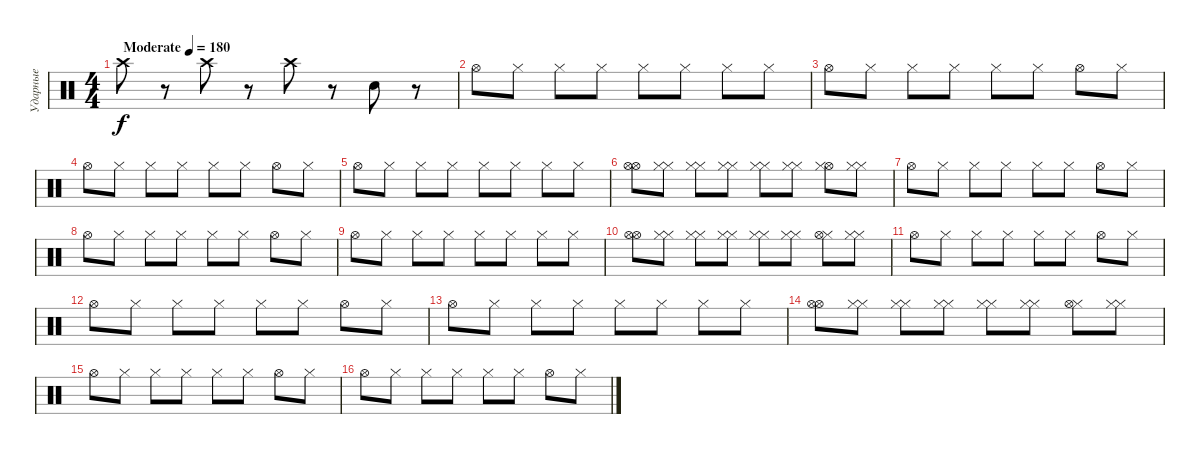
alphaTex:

\track ("Ударные" "Ударные") {instrument percussion}
\staff {score}
\articulation defaults
\ts (4 4)
\tempo (180 "Moderate")
\clef neutral
\ks c "Crash high (hit)".8{dy f}
r.8 "Crash high (hit)".8 r.8 "Crash high (hit)".8 r.8 "Electric Snare (hit)".8 r.8 |
"Hi-Hat (open)".8 "Hi-Hat (closed)".8 "Hi-Hat (closed)".8 "Hi-Hat (closed)".8 "Hi-Hat (closed)".8 "Hi-Hat (closed)".8 "Hi-Hat (closed)".8 "Hi-Hat (closed)".8 |
"Hi-Hat (open)".8 "Hi-Hat (closed)".8 "Hi-Hat (closed)".8 "Hi-Hat (closed)".8 "Hi-Hat (closed)".8 "Hi-Hat (closed)".8 "Hi-Hat (open)".8 "Hi-Hat (closed)".8 |
"Hi-Hat (open)".8 "Hi-Hat (closed)".8 "Hi-Hat (closed)".8 "Hi-Hat (closed)".8 "Hi-Hat (closed)".8 "Hi-Hat (closed)".8 "Hi-Hat (open)".8 "Hi-Hat (closed)".8 |
"Hi-Hat (open)".8 "Hi-Hat (closed)".8 "Hi-Hat (closed)".8 "Hi-Hat (closed)".8 "Hi-Hat (closed)".8 "Hi-Hat (closed)".8 "Hi-Hat (closed)".8 "Hi-Hat (closed)".8 |
("Hi-Hat (open)" "Hi-Hat (open)").8 ("Hi-Hat (closed)" "Hi-Hat (closed)").8 ("Hi-Hat (closed)" "Hi-Hat (closed)").8 ("Hi-Hat (closed)" "Hi-Hat (closed)").8 ("Hi-Hat (closed)" "Hi-Hat (closed)").8 ("Hi-Hat (closed)" "Hi-Hat (closed)").8 ("Hi-Hat (open)" "Hi-Hat (closed)").8 ("Hi-Hat (closed)" "Hi-Hat (closed)").8 |
"Hi-Hat (open)".8 "Hi-Hat (closed)".8 "Hi-Hat (closed)".8 "Hi-Hat (closed)".8 "Hi-Hat (closed)".8 "Hi-Hat (closed)".8 "Hi-Hat (open)".8 "Hi-Hat (closed)".8 |
"Hi-Hat (open)".8 "Hi-Hat (closed)".8 "Hi-Hat (closed)".8 "Hi-Hat (closed)".8 "Hi-Hat (closed)".8 "Hi-Hat (closed)".8 "Hi-Hat (open)".8 "Hi-Hat (closed)".8 |
"Hi-Hat (open)".8 "Hi-Hat (closed)".8 "Hi-Hat (closed)".8 "Hi-Hat (closed)".8 "Hi-Hat (closed)".8 "Hi-Hat (closed)".8 "Hi-Hat (closed)".8 "Hi-Hat (closed)".8 |
("Hi-Hat (open)" "Hi-Hat (open)").8 ("Hi-Hat (closed)" "Hi-Hat (closed)").8 ("Hi-Hat (closed)" "Hi-Hat (closed)").8 ("Hi-Hat (closed)" "Hi-Hat (closed)").8 ("Hi-Hat (closed)" "Hi-Hat (closed)").8 ("Hi-Hat (closed)" "Hi-Hat (closed)").8 ("Hi-Hat (closed)" "Hi-Hat (open)").8 ("Hi-Hat (closed)" "Hi-Hat (closed)").8 |
"Hi-Hat (open)".8 "Hi-Hat (closed)".8 "Hi-Hat (closed)".8 "Hi-Hat (closed)".8 "Hi-Hat (closed)".8 "Hi-Hat (closed)".8 "Hi-Hat (open)".8 "Hi-Hat (closed)".8 |
"Hi-Hat (open)".8 "Hi-Hat (closed)".8 "Hi-Hat (closed)".8 "Hi-Hat (closed)".8 "Hi-Hat (closed)".8 "Hi-Hat (closed)".8 "Hi-Hat (open)".8 "Hi-Hat (closed)".8 |
"Hi-Hat (open)".8 "Hi-Hat (closed)".8 "Hi-Hat (closed)".8 "Hi-Hat (closed)".8 "Hi-Hat (closed)".8 "Hi-Hat (closed)".8 "Hi-Hat (closed)".8 "Hi-Hat (closed)".8 |
("Hi-Hat (open)" "Hi-Hat (open)").8 ("Hi-Hat (closed)" "Hi-Hat (closed)").8 ("Hi-Hat (closed)" "Hi-Hat (closed)").8 ("Hi-Hat (closed)" "Hi-Hat (closed)").8 ("Hi-Hat (closed)" "Hi-Hat (closed)").8 ("Hi-Hat (closed)" "Hi-Hat (closed)").8 ("Hi-Hat (closed)" "Hi-Hat (open)").8 ("Hi-Hat (closed)" "Hi-Hat (closed)").8 |
"Hi-Hat (open)".8 "Hi-Hat (closed)".8 "Hi-Hat (closed)".8 "Hi-Hat (closed)".8 "Hi-Hat (closed)".8 "Hi-Hat (closed)".8 "Hi-Hat (open)".8 "Hi-Hat (closed)".8 |
"Hi-Hat (open)".8 "Hi-Hat (closed)".8 "Hi-Hat (closed)".8 "Hi-Hat (closed)".8 "Hi-Hat (closed)".8 "Hi-Hat (closed)".8 "Hi-Hat (open)".8 "Hi-Hat (closed)".8
